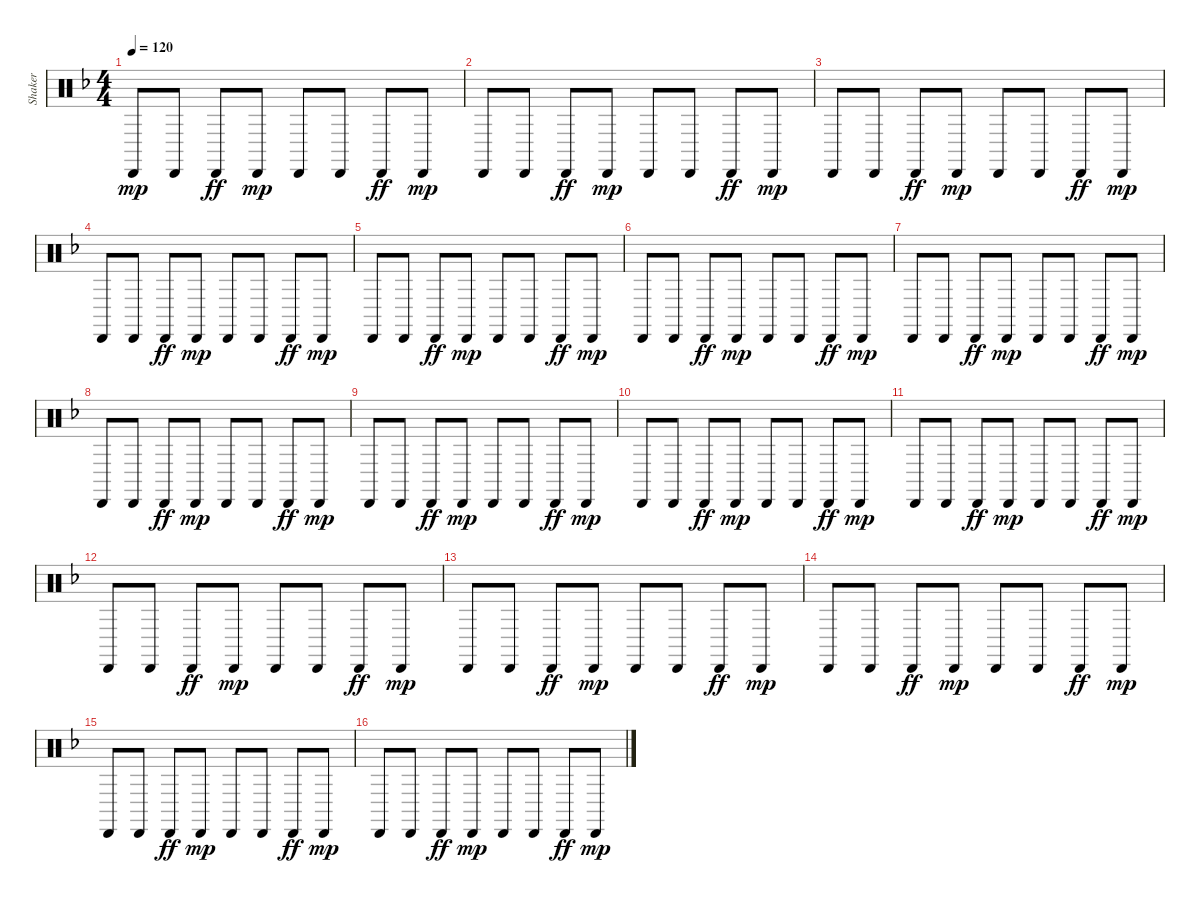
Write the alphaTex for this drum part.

\track ("Shaker" "Shaker") {instrument percussion}
\staff {score}
\articulation defaults
\ts (4 4)
\tempo 120
\clef neutral
\ks f "Cabasa (hit)".8{dy mp} "Cabasa (hit)".8 "Cabasa (hit)".8{dy ff} "Cabasa (hit)".8{dy mp} "Cabasa (hit)".8 "Cabasa (hit)".8 "Cabasa (hit)".8{dy ff} "Cabasa (hit)".8{dy mp}
|
"Cabasa (hit)".8 "Cabasa (hit)".8 "Cabasa (hit)".8{dy ff} "Cabasa (hit)".8{dy mp} "Cabasa (hit)".8 "Cabasa (hit)".8 "Cabasa (hit)".8{dy ff} "Cabasa (hit)".8{dy mp} |
"Cabasa (hit)".8 "Cabasa (hit)".8 "Cabasa (hit)".8{dy ff} "Cabasa (hit)".8{dy mp} "Cabasa (hit)".8 "Cabasa (hit)".8 "Cabasa (hit)".8{dy ff} "Cabasa (hit)".8{dy mp} |
"Cabasa (hit)".8 "Cabasa (hit)".8 "Cabasa (hit)".8{dy ff} "Cabasa (hit)".8{dy mp} "Cabasa (hit)".8 "Cabasa (hit)".8 "Cabasa (hit)".8{dy ff} "Cabasa (hit)".8{dy mp} |
"Cabasa (hit)".8 "Cabasa (hit)".8 "Cabasa (hit)".8{dy ff} "Cabasa (hit)".8{dy mp} "Cabasa (hit)".8 "Cabasa (hit)".8 "Cabasa (hit)".8{dy ff} "Cabasa (hit)".8{dy mp} |
"Cabasa (hit)".8 "Cabasa (hit)".8 "Cabasa (hit)".8{dy ff} "Cabasa (hit)".8{dy mp} "Cabasa (hit)".8 "Cabasa (hit)".8 "Cabasa (hit)".8{dy ff} "Cabasa (hit)".8{dy mp} |
"Cabasa (hit)".8 "Cabasa (hit)".8 "Cabasa (hit)".8{dy ff} "Cabasa (hit)".8{dy mp} "Cabasa (hit)".8 "Cabasa (hit)".8 "Cabasa (hit)".8{dy ff} "Cabasa (hit)".8{dy mp} |
"Cabasa (hit)".8 "Cabasa (hit)".8 "Cabasa (hit)".8{dy ff} "Cabasa (hit)".8{dy mp} "Cabasa (hit)".8 "Cabasa (hit)".8 "Cabasa (hit)".8{dy ff} "Cabasa (hit)".8{dy mp} |
"Cabasa (hit)".8 "Cabasa (hit)".8 "Cabasa (hit)".8{dy ff} "Cabasa (hit)".8{dy mp} "Cabasa (hit)".8 "Cabasa (hit)".8 "Cabasa (hit)".8{dy ff} "Cabasa (hit)".8{dy mp} |
"Cabasa (hit)".8 "Cabasa (hit)".8 "Cabasa (hit)".8{dy ff} "Cabasa (hit)".8{dy mp} "Cabasa (hit)".8 "Cabasa (hit)".8 "Cabasa (hit)".8{dy ff} "Cabasa (hit)".8{dy mp} |
"Cabasa (hit)".8 "Cabasa (hit)".8 "Cabasa (hit)".8{dy ff} "Cabasa (hit)".8{dy mp} "Cabasa (hit)".8 "Cabasa (hit)".8 "Cabasa (hit)".8{dy ff} "Cabasa (hit)".8{dy mp} |
"Cabasa (hit)".8 "Cabasa (hit)".8 "Cabasa (hit)".8{dy ff} "Cabasa (hit)".8{dy mp} "Cabasa (hit)".8 "Cabasa (hit)".8 "Cabasa (hit)".8{dy ff} "Cabasa (hit)".8{dy mp} |
"Cabasa (hit)".8 "Cabasa (hit)".8 "Cabasa (hit)".8{dy ff} "Cabasa (hit)".8{dy mp} "Cabasa (hit)".8 "Cabasa (hit)".8 "Cabasa (hit)".8{dy ff} "Cabasa (hit)".8{dy mp} |
"Cabasa (hit)".8 "Cabasa (hit)".8 "Cabasa (hit)".8{dy ff} "Cabasa (hit)".8{dy mp} "Cabasa (hit)".8 "Cabasa (hit)".8 "Cabasa (hit)".8{dy ff} "Cabasa (hit)".8{dy mp} |
"Cabasa (hit)".8 "Cabasa (hit)".8 "Cabasa (hit)".8{dy ff} "Cabasa (hit)".8{dy mp} "Cabasa (hit)".8 "Cabasa (hit)".8 "Cabasa (hit)".8{dy ff} "Cabasa (hit)".8{dy mp} |
"Cabasa (hit)".8 "Cabasa (hit)".8 "Cabasa (hit)".8{dy ff} "Cabasa (hit)".8{dy mp} "Cabasa (hit)".8 "Cabasa (hit)".8 "Cabasa (hit)".8{dy ff} "Cabasa (hit)".8{dy mp}
